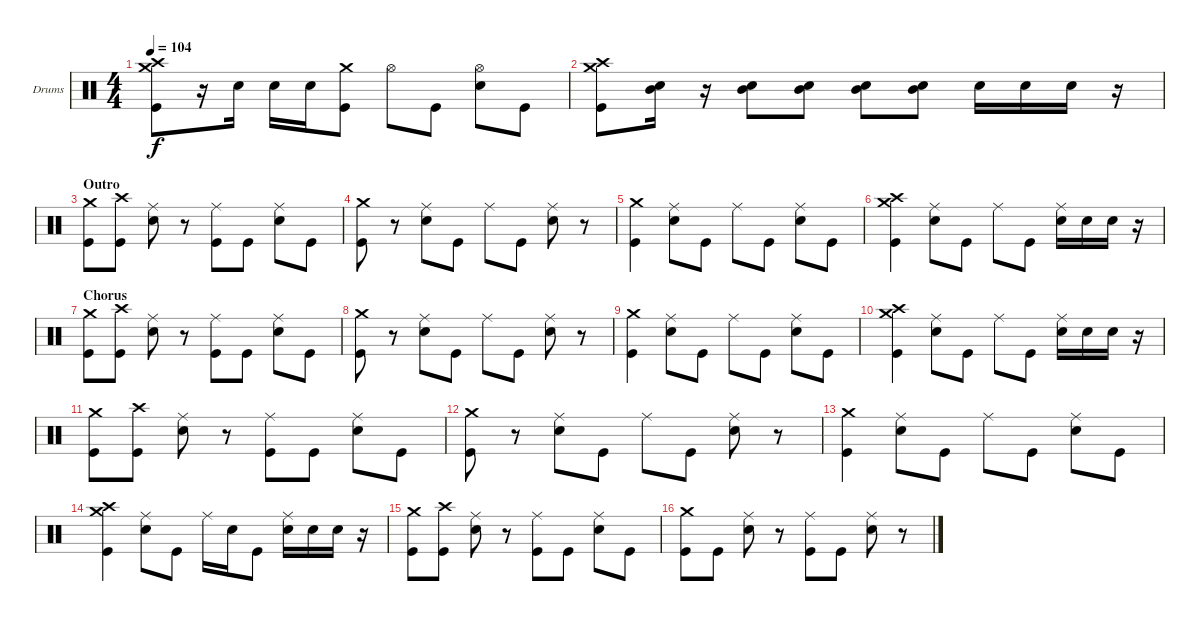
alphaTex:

\defaultSystemsLayout 4
\bracketExtendMode nobrackets
\firstSystemTrackNameOrientation horizontal
\otherSystemsTrackNameOrientation horizontal
\track ("Dave Krusen" "Drums") {instrument percussion}
\staff {score}
\articulation defaults
\ts (4 4)
\tempo 104
\clef neutral
\ks c
("Crash high (hit)" "Kick (hit)" "Crash medium (hit)").8{dy f} r.16 "Snare (hit) 2".16 "Snare (hit) 2".16 "Snare (hit) 2".16 ("Crash medium (hit)" "Kick (hit)").8 "Hi-Hat (open)".8 "Kick (hit)".8 ("Snare (hit) 2" "Hi-Hat (open)").8 "Kick (hit)".8 |
("Crash medium (hit)" "Kick (hit)" "Crash high (hit)").8 ("Snare (hit) 2" "Mid Tom (hit)").16 r.16 ("Snare (hit) 2" "Mid Tom (hit)").8 ("Snare (hit) 2" "Mid Tom (hit)").8 ("Snare (hit) 2" "Mid Tom (hit)").8 ("Snare (hit) 2" "Mid Tom (hit)").8 "Snare (hit) 2".16 "Snare (hit) 2".16 "Snare (hit) 2".16 r.16 |
\section ("" "Outro")
("Crash medium (hit)" "Kick (hit)").8 ("Crash high (hit)" "Kick (hit)").8 ("Ride (middle)" "Snare (hit) 2").8 r.8 ("Ride (middle)" "Kick (hit)").8 "Kick (hit)".8 ("Ride (middle)" "Snare (hit) 2").8 "Kick (hit)".8 |
("Crash medium (hit)" "Kick (hit)").8 r.8 ("Ride (middle)" "Snare (hit) 2").8 "Kick (hit)".8 "Ride (middle)".8 "Kick (hit)".8 ("Ride (middle)" "Snare (hit) 2").8 r.8 |
("Kick (hit)" "Crash medium (hit)").4 ("Snare (hit) 2" "Ride (middle)").8 "Kick (hit)".8 "Ride (middle)".8 "Kick (hit)".8 ("Snare (hit) 2" "Ride (middle)").8 "Kick (hit)".8 |
("Crash high (hit)" "Kick (hit)" "Crash medium (hit)").4 ("Snare (hit) 2" "Ride (middle)").8 "Kick (hit)".8 "Ride (middle)".8 "Kick (hit)".8 ("Snare (hit) 2" "Ride (middle)").16 "Snare (hit) 2".16 "Snare (hit) 2".16 r.16 |
\section ("" "Chorus")
("Crash medium (hit)" "Kick (hit)").8 ("Crash high (hit)" "Kick (hit)").8 ("Ride (middle)" "Snare (hit) 2").8 r.8 ("Ride (middle)" "Kick (hit)").8 "Kick (hit)".8 ("Ride (middle)" "Snare (hit) 2").8 "Kick (hit)".8 |
("Crash medium (hit)" "Kick (hit)").8 r.8 ("Ride (middle)" "Snare (hit) 2").8 "Kick (hit)".8 "Ride (middle)".8 "Kick (hit)".8 ("Ride (middle)" "Snare (hit) 2").8 r.8 |
("Kick (hit)" "Crash medium (hit)").4 ("Snare (hit) 2" "Ride (middle)").8 "Kick (hit)".8 "Ride (middle)".8 "Kick (hit)".8 ("Snare (hit) 2" "Ride (middle)").8 "Kick (hit)".8 |
("Crash high (hit)" "Kick (hit)" "Crash medium (hit)").4 ("Snare (hit) 2" "Ride (middle)").8 "Kick (hit)".8 "Ride (middle)".8 "Kick (hit)".8 ("Snare (hit) 2" "Ride (middle)").16 "Snare (hit) 2".16 "Snare (hit) 2".16 r.16 |
("Crash medium (hit)" "Kick (hit)").8 ("Crash high (hit)" "Kick (hit)").8 ("Ride (middle)" "Snare (hit) 2").8 r.8 ("Ride (middle)" "Kick (hit)").8 "Kick (hit)".8 ("Ride (middle)" "Snare (hit) 2").8 "Kick (hit)".8 |
("Crash medium (hit)" "Kick (hit)").8 r.8 ("Ride (middle)" "Snare (hit) 2").8 "Kick (hit)".8 "Ride (middle)".8 "Kick (hit)".8 ("Ride (middle)" "Snare (hit) 2").8 r.8 |
("Kick (hit)" "Crash medium (hit)").4 ("Snare (hit) 2" "Ride (middle)").8 "Kick (hit)".8 "Ride (middle)".8 "Kick (hit)".8 ("Snare (hit) 2" "Ride (middle)").8 "Kick (hit)".8 |
("Crash high (hit)" "Kick (hit)" "Crash medium (hit)").4 ("Snare (hit) 2" "Ride (middle)").8 "Kick (hit)".8 "Ride (middle)".16 "Snare (hit) 2".16 "Kick (hit)".8 ("Snare (hit) 2" "Ride (middle)").16 "Snare (hit) 2".16 "Snare (hit) 2".16 r.16 |
("Crash medium (hit)" "Kick (hit)").8 ("Crash high (hit)" "Kick (hit)").8 ("Ride (middle)" "Snare (hit) 2").8 r.8 ("Ride (middle)" "Kick (hit)").8 "Kick (hit)".8 ("Ride (middle)" "Snare (hit) 2").8 "Kick (hit)".8 |
("Crash medium (hit)" "Kick (hit)").8 "Kick (hit)".8 ("Ride (middle)" "Snare (hit) 2").8 r.8 ("Ride (middle)" "Kick (hit)").8 "Kick (hit)".8 ("Ride (middle)" "Snare (hit) 2").8 r.8
